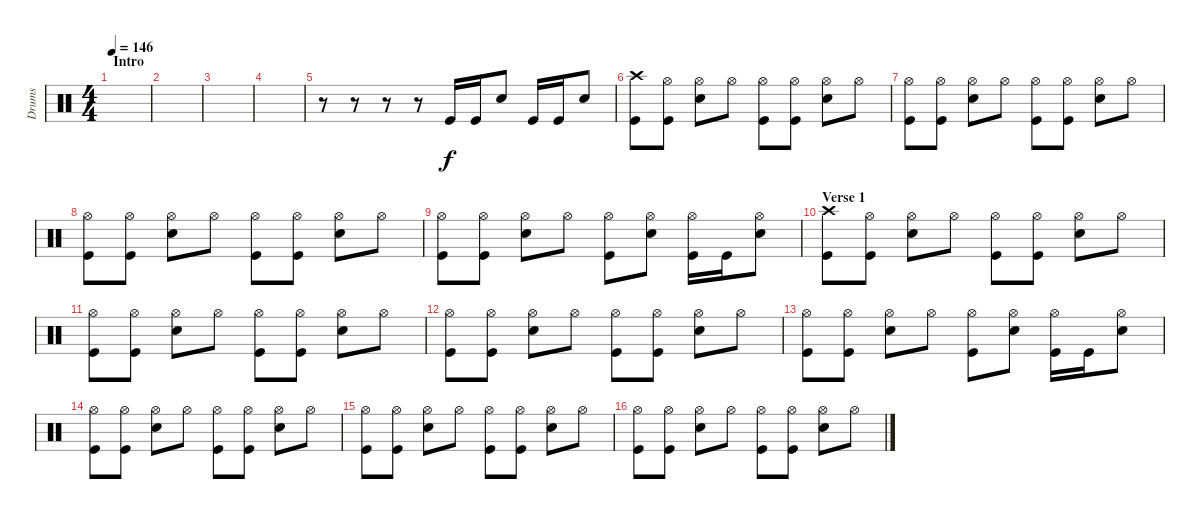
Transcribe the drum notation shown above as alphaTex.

\track ("Drums" "Drums") {instrument percussion}
\staff {score}
\articulation defaults
\ts (4 4)
\section ("" "Intro")
\tempo 146
\clef neutral
\ks c
|
|
|
|
r.8 r.8 r.8 r.8 "Kick (hit)".16 "Kick (hit)".16 "Snare (hit) 2".8 "Kick (hit)".16 "Kick (hit)".16 "Snare (hit) 2".8 |
("Crash high (hit)" "Kick (hit)").8 ("Hi-Hat (open)" "Kick (hit)").8 ("Hi-Hat (open)" "Snare (hit) 2").8 "Hi-Hat (open)".8 ("Hi-Hat (open)" "Kick (hit)").8 ("Hi-Hat (open)" "Kick (hit)").8 ("Hi-Hat (open)" "Snare (hit) 2").8 "Hi-Hat (open)".8 |
("Hi-Hat (open)" "Kick (hit)").8 ("Hi-Hat (open)" "Kick (hit)").8 ("Hi-Hat (open)" "Snare (hit) 2").8 "Hi-Hat (open)".8 ("Hi-Hat (open)" "Kick (hit)").8 ("Hi-Hat (open)" "Kick (hit)").8 ("Hi-Hat (open)" "Snare (hit) 2").8 "Hi-Hat (open)".8 |
("Hi-Hat (open)" "Kick (hit)").8 ("Hi-Hat (open)" "Kick (hit)").8 ("Hi-Hat (open)" "Snare (hit) 2").8 "Hi-Hat (open)".8 ("Hi-Hat (open)" "Kick (hit)").8 ("Hi-Hat (open)" "Kick (hit)").8 ("Hi-Hat (open)" "Snare (hit) 2").8 "Hi-Hat (open)".8 |
("Hi-Hat (open)" "Kick (hit)").8 ("Hi-Hat (open)" "Kick (hit)").8 ("Hi-Hat (open)" "Snare (hit) 2").8 "Hi-Hat (open)".8 ("Hi-Hat (open)" "Kick (hit)").8 ("Hi-Hat (open)" "Snare (hit) 2").8 ("Hi-Hat (open)" "Kick (hit)").16 "Kick (hit)".16 ("Hi-Hat (open)" "Snare (hit) 2").8 |
\section ("" "Verse 1")
("Crash high (hit)" "Kick (hit)").8 ("Hi-Hat (open)" "Kick (hit)").8 ("Hi-Hat (open)" "Snare (hit) 2").8 "Hi-Hat (open)".8 ("Hi-Hat (open)" "Kick (hit)").8 ("Hi-Hat (open)" "Kick (hit)").8 ("Hi-Hat (open)" "Snare (hit) 2").8 "Hi-Hat (open)".8 |
("Hi-Hat (open)" "Kick (hit)").8 ("Hi-Hat (open)" "Kick (hit)").8 ("Hi-Hat (open)" "Snare (hit) 2").8 "Hi-Hat (open)".8 ("Hi-Hat (open)" "Kick (hit)").8 ("Hi-Hat (open)" "Kick (hit)").8 ("Hi-Hat (open)" "Snare (hit) 2").8 "Hi-Hat (open)".8 |
("Hi-Hat (open)" "Kick (hit)").8 ("Hi-Hat (open)" "Kick (hit)").8 ("Hi-Hat (open)" "Snare (hit) 2").8 "Hi-Hat (open)".8 ("Hi-Hat (open)" "Kick (hit)").8 ("Hi-Hat (open)" "Kick (hit)").8 ("Hi-Hat (open)" "Snare (hit) 2").8 "Hi-Hat (open)".8 |
("Hi-Hat (open)" "Kick (hit)").8 ("Hi-Hat (open)" "Kick (hit)").8 ("Hi-Hat (open)" "Snare (hit) 2").8 "Hi-Hat (open)".8 ("Hi-Hat (open)" "Kick (hit)").8 ("Hi-Hat (open)" "Snare (hit) 2").8 ("Hi-Hat (open)" "Kick (hit)").16 "Kick (hit)".16 ("Hi-Hat (open)" "Snare (hit) 2").8 |
("Hi-Hat (open)" "Kick (hit)").8 ("Hi-Hat (open)" "Kick (hit)").8 ("Hi-Hat (open)" "Snare (hit) 2").8 "Hi-Hat (open)".8 ("Hi-Hat (open)" "Kick (hit)").8 ("Hi-Hat (open)" "Kick (hit)").8 ("Hi-Hat (open)" "Snare (hit) 2").8 "Hi-Hat (open)".8 |
("Hi-Hat (open)" "Kick (hit)").8 ("Hi-Hat (open)" "Kick (hit)").8 ("Hi-Hat (open)" "Snare (hit) 2").8 "Hi-Hat (open)".8 ("Hi-Hat (open)" "Kick (hit)").8 ("Hi-Hat (open)" "Kick (hit)").8 ("Hi-Hat (open)" "Snare (hit) 2").8 "Hi-Hat (open)".8 |
("Hi-Hat (open)" "Kick (hit)").8 ("Hi-Hat (open)" "Kick (hit)").8 ("Hi-Hat (open)" "Snare (hit) 2").8 "Hi-Hat (open)".8 ("Hi-Hat (open)" "Kick (hit)").8 ("Hi-Hat (open)" "Kick (hit)").8 ("Hi-Hat (open)" "Snare (hit) 2").8 "Hi-Hat (open)".8
